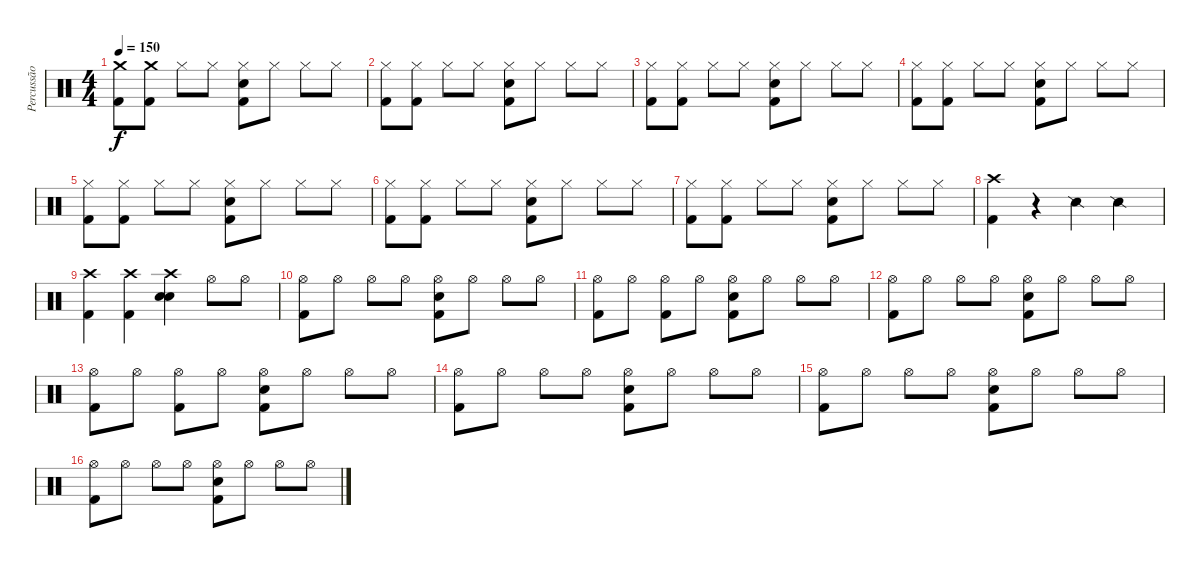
\track ("Percussão" "Percussão") {instrument percussion}
\staff {score}
\articulation defaults
\ts (4 4)
\tempo 150
\clef neutral
\ks c
("Crash medium (hit)" "Kick (hit) 2").8{dy f} ("Crash medium (hit)" "Kick (hit) 2").8 "Hi-Hat (closed)".8 "Hi-Hat (closed)".8 ("Hi-Hat (closed)" "Snare (hit) 2" "Kick (hit) 2").8 "Hi-Hat (closed)".8 "Hi-Hat (closed)".8 "Hi-Hat (closed)".8 |
("Hi-Hat (closed)" "Kick (hit) 2").8 ("Hi-Hat (closed)" "Kick (hit) 2").8 "Hi-Hat (closed)".8 "Hi-Hat (closed)".8 ("Hi-Hat (closed)" "Snare (hit) 2" "Kick (hit) 2").8 "Hi-Hat (closed)".8 "Hi-Hat (closed)".8 "Hi-Hat (closed)".8 |
("Hi-Hat (closed)" "Kick (hit) 2").8 ("Hi-Hat (closed)" "Kick (hit) 2").8 "Hi-Hat (closed)".8 "Hi-Hat (closed)".8 ("Hi-Hat (closed)" "Snare (hit) 2" "Kick (hit) 2").8 "Hi-Hat (closed)".8 "Hi-Hat (closed)".8 "Hi-Hat (closed)".8 |
("Hi-Hat (closed)" "Kick (hit) 2").8 ("Hi-Hat (closed)" "Kick (hit) 2").8 "Hi-Hat (closed)".8 "Hi-Hat (closed)".8 ("Hi-Hat (closed)" "Snare (hit) 2" "Kick (hit) 2").8 "Hi-Hat (closed)".8 "Hi-Hat (closed)".8 "Hi-Hat (closed)".8 |
("Hi-Hat (closed)" "Kick (hit) 2").8 ("Hi-Hat (closed)" "Kick (hit) 2").8 "Hi-Hat (closed)".8 "Hi-Hat (closed)".8 ("Hi-Hat (closed)" "Snare (hit) 2" "Kick (hit) 2").8 "Hi-Hat (closed)".8 "Hi-Hat (closed)".8 "Hi-Hat (closed)".8 |
("Hi-Hat (closed)" "Kick (hit) 2").8 ("Hi-Hat (closed)" "Kick (hit) 2").8 "Hi-Hat (closed)".8 "Hi-Hat (closed)".8 ("Hi-Hat (closed)" "Snare (hit) 2" "Kick (hit) 2").8 "Hi-Hat (closed)".8 "Hi-Hat (closed)".8 "Hi-Hat (closed)".8 |
("Hi-Hat (closed)" "Kick (hit) 2").8 ("Hi-Hat (closed)" "Kick (hit) 2").8 "Hi-Hat (closed)".8 "Hi-Hat (closed)".8 ("Hi-Hat (closed)" "Snare (hit) 2" "Kick (hit) 2").8 "Hi-Hat (closed)".8 "Hi-Hat (closed)".8 "Hi-Hat (closed)".8 |
("Crash high (hit)" "Kick (hit) 2").4 r.4 "Snare (side stick) 2".4 "Snare (side stick) 2".4 |
("Crash high (hit)" "Kick (hit) 2").4 ("Crash high (hit)" "Kick (hit) 2").4 ("Crash high (hit)" "Snare (hit) 2" "Snare (hit) 2").4 "Hi-Hat (open)".8 "Hi-Hat (open)".8 |
("Hi-Hat (open)" "Kick (hit) 2").8 "Hi-Hat (open)".8 "Hi-Hat (open)".8 "Hi-Hat (open)".8 ("Hi-Hat (open)" "Snare (hit) 2" "Kick (hit) 2").8 "Hi-Hat (open)".8 "Hi-Hat (open)".8 "Hi-Hat (open)".8 |
("Hi-Hat (open)" "Kick (hit) 2").8 "Hi-Hat (open)".8 ("Hi-Hat (open)" "Kick (hit) 2").8 "Hi-Hat (open)".8 ("Hi-Hat (open)" "Snare (hit) 2" "Kick (hit) 2").8 "Hi-Hat (open)".8 "Hi-Hat (open)".8 "Hi-Hat (open)".8 |
("Hi-Hat (open)" "Kick (hit) 2").8 "Hi-Hat (open)".8 "Hi-Hat (open)".8 "Hi-Hat (open)".8 ("Hi-Hat (open)" "Snare (hit) 2" "Kick (hit) 2").8 "Hi-Hat (open)".8 "Hi-Hat (open)".8 "Hi-Hat (open)".8 |
("Hi-Hat (open)" "Kick (hit) 2").8 "Hi-Hat (open)".8 ("Hi-Hat (open)" "Kick (hit) 2").8 "Hi-Hat (open)".8 ("Hi-Hat (open)" "Snare (hit) 2" "Kick (hit) 2").8 "Hi-Hat (open)".8 "Hi-Hat (open)".8 "Hi-Hat (open)".8 |
("Hi-Hat (open)" "Kick (hit) 2").8 "Hi-Hat (open)".8 "Hi-Hat (open)".8 "Hi-Hat (open)".8 ("Hi-Hat (open)" "Snare (hit) 2" "Kick (hit) 2").8 "Hi-Hat (open)".8 "Hi-Hat (open)".8 "Hi-Hat (open)".8 |
("Hi-Hat (open)" "Kick (hit) 2").8 "Hi-Hat (open)".8 "Hi-Hat (open)".8 "Hi-Hat (open)".8 ("Hi-Hat (open)" "Snare (hit) 2" "Kick (hit) 2").8 "Hi-Hat (open)".8 "Hi-Hat (open)".8 "Hi-Hat (open)".8 |
("Hi-Hat (open)" "Kick (hit) 2").8 "Hi-Hat (open)".8 "Hi-Hat (open)".8 "Hi-Hat (open)".8 ("Hi-Hat (open)" "Snare (hit) 2" "Kick (hit) 2").8 "Hi-Hat (open)".8 "Hi-Hat (open)".8 "Hi-Hat (open)".8
